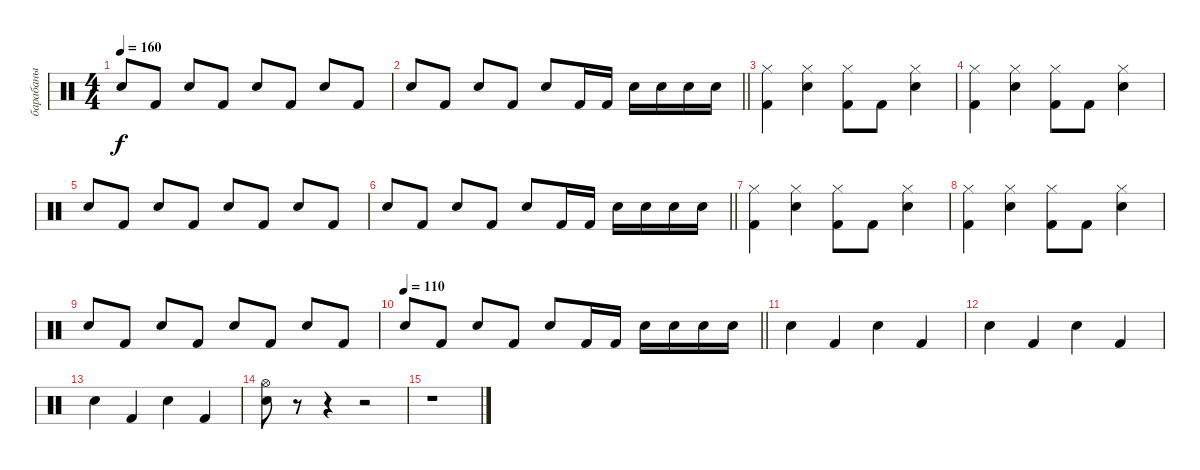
\track ("барабаны" "барабаны") {instrument percussion}
\staff {score}
\articulation defaults
\ts (4 4)
\tempo 160
\clef neutral
\ks c "Snare (hit) 2".8{dy f} "Kick (hit) 2".8 "Snare (hit) 2".8 "Kick (hit) 2".8 "Snare (hit) 2".8 "Kick (hit) 2".8 "Snare (hit) 2".8 "Kick (hit) 2".8
|
\barLineRight lightlight "Snare (hit) 2".8 "Kick (hit) 2".8 "Snare (hit) 2".8 "Kick (hit) 2".8 "Snare (hit) 2".8 "Kick (hit) 2".16 "Kick (hit) 2".16 "Snare (hit) 2".16 "Snare (hit) 2".16 "Snare (hit) 2".16 "Snare (hit) 2".16
|
("Hi-Hat (closed)" "Kick (hit) 2").4 ("Hi-Hat (closed)" "Snare (hit) 2").4 ("Hi-Hat (closed)" "Kick (hit) 2").8 "Kick (hit) 2".8 ("Hi-Hat (closed)" "Snare (hit) 2").4 |
("Hi-Hat (closed)" "Kick (hit) 2").4 ("Hi-Hat (closed)" "Snare (hit) 2").4 ("Hi-Hat (closed)" "Kick (hit) 2").8 "Kick (hit) 2".8 ("Hi-Hat (closed)" "Snare (hit) 2").4 |
"Snare (hit) 2".8 "Kick (hit) 2".8 "Snare (hit) 2".8 "Kick (hit) 2".8 "Snare (hit) 2".8 "Kick (hit) 2".8 "Snare (hit) 2".8 "Kick (hit) 2".8 |
\barLineRight lightlight "Snare (hit) 2".8 "Kick (hit) 2".8 "Snare (hit) 2".8 "Kick (hit) 2".8 "Snare (hit) 2".8 "Kick (hit) 2".16 "Kick (hit) 2".16 "Snare (hit) 2".16 "Snare (hit) 2".16 "Snare (hit) 2".16 "Snare (hit) 2".16
|
("Hi-Hat (closed)" "Kick (hit) 2").4 ("Hi-Hat (closed)" "Snare (hit) 2").4 ("Hi-Hat (closed)" "Kick (hit) 2").8 "Kick (hit) 2".8 ("Hi-Hat (closed)" "Snare (hit) 2").4 |
("Hi-Hat (closed)" "Kick (hit) 2").4 ("Hi-Hat (closed)" "Snare (hit) 2").4 ("Hi-Hat (closed)" "Kick (hit) 2").8 "Kick (hit) 2".8 ("Hi-Hat (closed)" "Snare (hit) 2").4 |
"Snare (hit) 2".8 "Kick (hit) 2".8 "Snare (hit) 2".8 "Kick (hit) 2".8 "Snare (hit) 2".8 "Kick (hit) 2".8 "Snare (hit) 2".8 "Kick (hit) 2".8 |
\tempo 110
\barLineRight lightlight "Snare (hit) 2".8 "Kick (hit) 2".8 "Snare (hit) 2".8 "Kick (hit) 2".8 "Snare (hit) 2".8 "Kick (hit) 2".16 "Kick (hit) 2".16 "Snare (hit) 2".16 "Snare (hit) 2".16 "Snare (hit) 2".16 "Snare (hit) 2".16
|
"Snare (hit) 2".4 "Kick (hit) 2".4 "Snare (hit) 2".4 "Kick (hit) 2".4 |
"Snare (hit) 2".4 "Kick (hit) 2".4 "Snare (hit) 2".4 "Kick (hit) 2".4 |
"Snare (hit) 2".4 "Kick (hit) 2".4 "Snare (hit) 2".4 "Kick (hit) 2".4 |
("Hi-Hat (open)" "Snare (hit) 2").8 r.8 r.4 r.2 |
r.1
